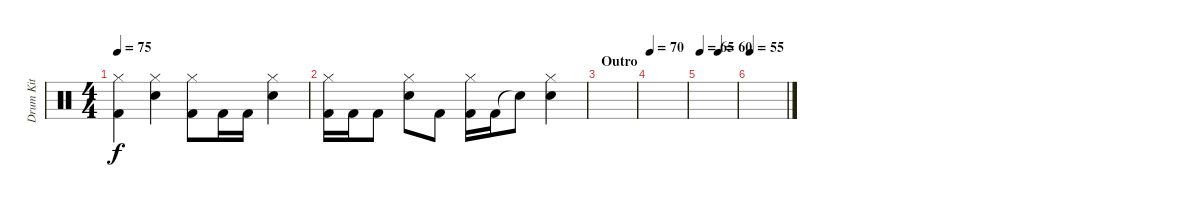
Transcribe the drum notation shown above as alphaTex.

\track ("Drum Kit" "Drum Kit") {instrument percussion}
\staff {score}
\articulation defaults
\ts (4 4)
\tempo 75
\clef neutral
\ks c
("Kick (hit) 2" "Hi-Hat (closed)").4{dy f} ("Electric Snare (hit)" "Hi-Hat (closed)").4 ("Kick (hit) 2" "Hi-Hat (closed)").8 "Kick (hit) 2".16 "Kick (hit) 2".16 ("Electric Snare (hit)" "Hi-Hat (closed)").4 |
("Kick (hit) 2" "Hi-Hat (closed)").16 "Kick (hit) 2".16 "Kick (hit) 2".8 ("Electric Snare (hit)" "Hi-Hat (closed)").8 "Kick (hit) 2".8 ("Kick (hit) 2" "Hi-Hat (closed)").16 "Kick (hit) 2".16 "Snare (hit)"{t}.8 ("Electric Snare (hit)" "Hi-Hat (closed)").4 |
\section ("" "Outro")
|
\tempo 70
|
\tempo 65
\tempo (60 0.5)
|
\tempo 55
